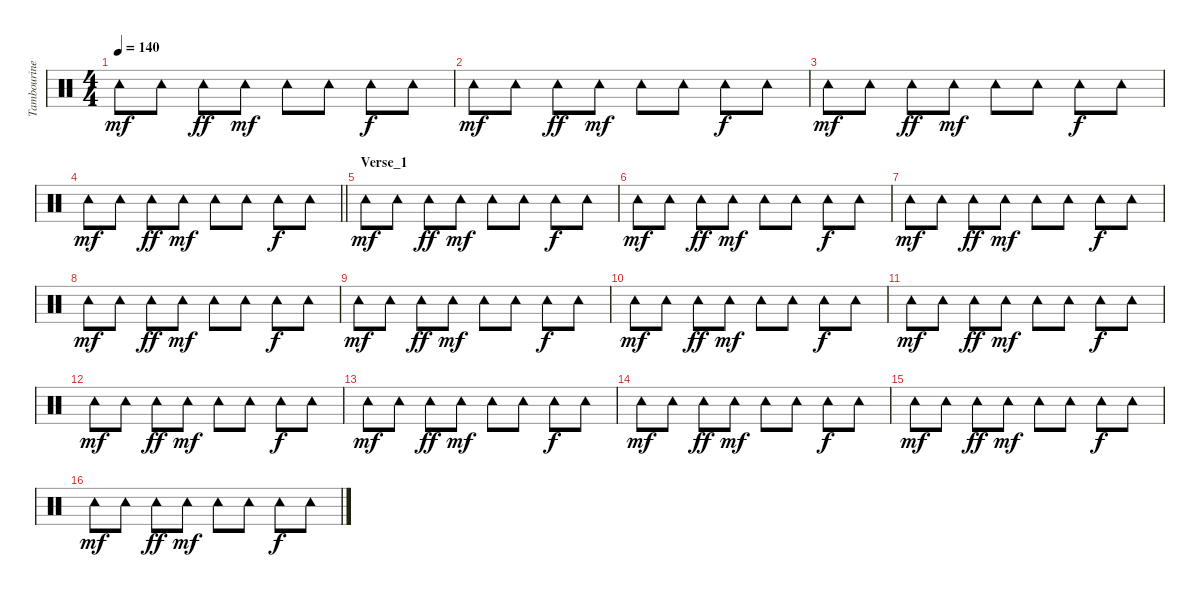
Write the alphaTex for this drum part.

\track ("Tambourine" "Tambourine") {instrument percussion}
\staff {score}
\articulation defaults
\ts (4 4)
\tempo 140
\clef neutral
\ks c "Tambourine (hit)".8{dy mf} "Tambourine (hit)".8 "Tambourine (hit)".8{dy ff} "Tambourine (hit)".8{dy mf} "Tambourine (hit)".8 "Tambourine (hit)".8 "Tambourine (hit)".8{dy f} "Tambourine (hit)".8
|
"Tambourine (hit)".8{dy mf} "Tambourine (hit)".8 "Tambourine (hit)".8{dy ff} "Tambourine (hit)".8{dy mf} "Tambourine (hit)".8 "Tambourine (hit)".8 "Tambourine (hit)".8{dy f} "Tambourine (hit)".8 |
"Tambourine (hit)".8{dy mf} "Tambourine (hit)".8 "Tambourine (hit)".8{dy ff} "Tambourine (hit)".8{dy mf} "Tambourine (hit)".8 "Tambourine (hit)".8 "Tambourine (hit)".8{dy f} "Tambourine (hit)".8 |
\barLineRight lightlight "Tambourine (hit)".8{dy mf} "Tambourine (hit)".8 "Tambourine (hit)".8{dy ff} "Tambourine (hit)".8{dy mf} "Tambourine (hit)".8 "Tambourine (hit)".8 "Tambourine (hit)".8{dy f} "Tambourine (hit)".8
|
\section ("" "Verse_1")
"Tambourine (hit)".8{dy mf} "Tambourine (hit)".8 "Tambourine (hit)".8{dy ff} "Tambourine (hit)".8{dy mf} "Tambourine (hit)".8 "Tambourine (hit)".8 "Tambourine (hit)".8{dy f} "Tambourine (hit)".8 |
"Tambourine (hit)".8{dy mf} "Tambourine (hit)".8 "Tambourine (hit)".8{dy ff} "Tambourine (hit)".8{dy mf} "Tambourine (hit)".8 "Tambourine (hit)".8 "Tambourine (hit)".8{dy f} "Tambourine (hit)".8 |
"Tambourine (hit)".8{dy mf} "Tambourine (hit)".8 "Tambourine (hit)".8{dy ff} "Tambourine (hit)".8{dy mf} "Tambourine (hit)".8 "Tambourine (hit)".8 "Tambourine (hit)".8{dy f} "Tambourine (hit)".8 |
"Tambourine (hit)".8{dy mf} "Tambourine (hit)".8 "Tambourine (hit)".8{dy ff} "Tambourine (hit)".8{dy mf} "Tambourine (hit)".8 "Tambourine (hit)".8 "Tambourine (hit)".8{dy f} "Tambourine (hit)".8 |
"Tambourine (hit)".8{dy mf} "Tambourine (hit)".8 "Tambourine (hit)".8{dy ff} "Tambourine (hit)".8{dy mf} "Tambourine (hit)".8 "Tambourine (hit)".8 "Tambourine (hit)".8{dy f} "Tambourine (hit)".8 |
"Tambourine (hit)".8{dy mf} "Tambourine (hit)".8 "Tambourine (hit)".8{dy ff} "Tambourine (hit)".8{dy mf} "Tambourine (hit)".8 "Tambourine (hit)".8 "Tambourine (hit)".8{dy f} "Tambourine (hit)".8 |
"Tambourine (hit)".8{dy mf} "Tambourine (hit)".8 "Tambourine (hit)".8{dy ff} "Tambourine (hit)".8{dy mf} "Tambourine (hit)".8 "Tambourine (hit)".8 "Tambourine (hit)".8{dy f} "Tambourine (hit)".8 |
"Tambourine (hit)".8{dy mf} "Tambourine (hit)".8 "Tambourine (hit)".8{dy ff} "Tambourine (hit)".8{dy mf} "Tambourine (hit)".8 "Tambourine (hit)".8 "Tambourine (hit)".8{dy f} "Tambourine (hit)".8 |
"Tambourine (hit)".8{dy mf} "Tambourine (hit)".8 "Tambourine (hit)".8{dy ff} "Tambourine (hit)".8{dy mf} "Tambourine (hit)".8 "Tambourine (hit)".8 "Tambourine (hit)".8{dy f} "Tambourine (hit)".8 |
"Tambourine (hit)".8{dy mf} "Tambourine (hit)".8 "Tambourine (hit)".8{dy ff} "Tambourine (hit)".8{dy mf} "Tambourine (hit)".8 "Tambourine (hit)".8 "Tambourine (hit)".8{dy f} "Tambourine (hit)".8 |
"Tambourine (hit)".8{dy mf} "Tambourine (hit)".8 "Tambourine (hit)".8{dy ff} "Tambourine (hit)".8{dy mf} "Tambourine (hit)".8 "Tambourine (hit)".8 "Tambourine (hit)".8{dy f} "Tambourine (hit)".8 |
"Tambourine (hit)".8{dy mf} "Tambourine (hit)".8 "Tambourine (hit)".8{dy ff} "Tambourine (hit)".8{dy mf} "Tambourine (hit)".8 "Tambourine (hit)".8 "Tambourine (hit)".8{dy f} "Tambourine (hit)".8
